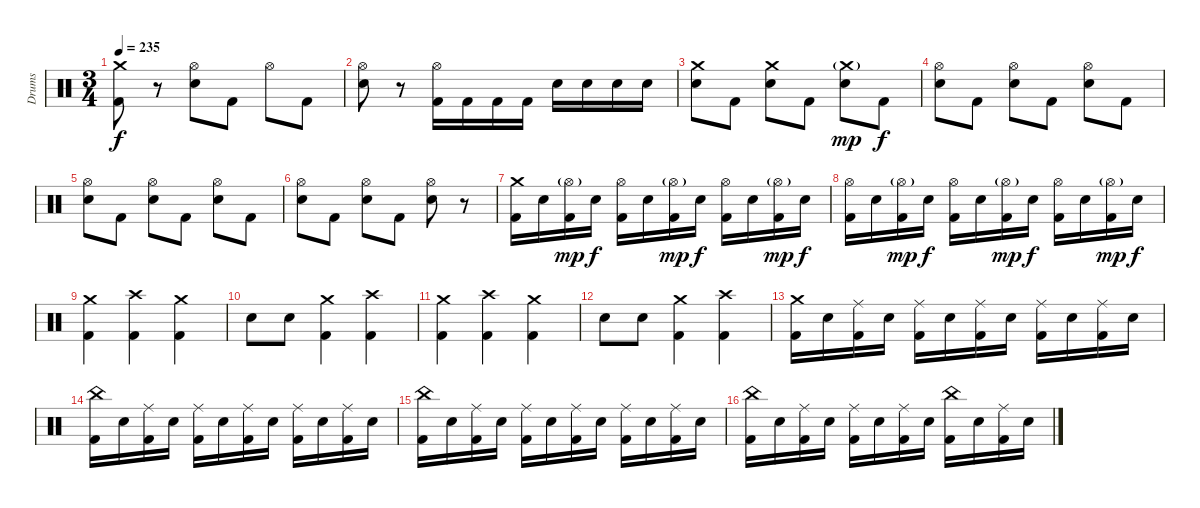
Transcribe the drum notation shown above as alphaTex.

\track ("Drums" "Drums") {instrument percussion}
\staff {score}
\articulation defaults
\ts (3 4)
\tempo 235
\clef neutral
\ks c
("Crash medium (hit)" "Kick (hit) 2").8{dy f} r.8 ("Hi-Hat (open)" "Electric Snare (hit)").8 "Kick (hit) 2".8 "Hi-Hat (open)".8 "Kick (hit) 2".8 |
("Hi-Hat (open)" "Electric Snare (hit)").8 r.8 ("Hi-Hat (open)" "Kick (hit) 2").16 "Kick (hit) 2".16 "Kick (hit) 2".16 "Kick (hit) 2".16 "Electric Snare (hit)".16 "Electric Snare (hit)".16 "Electric Snare (hit)".16 "Electric Snare (hit)".16 |
("Crash medium (hit)" "Electric Snare (hit)").8 "Kick (hit) 2".8 ("Crash medium (hit)" "Electric Snare (hit)").8 "Kick (hit) 2".8 ("Crash medium (hit)"{g} "Electric Snare (hit)").8{dy mp} "Kick (hit) 2".8{dy f} |
("Hi-Hat (open)" "Electric Snare (hit)").8 "Kick (hit) 2".8 ("Hi-Hat (open)" "Electric Snare (hit)").8 "Kick (hit) 2".8 ("Hi-Hat (open)" "Electric Snare (hit)").8 "Kick (hit) 2".8 |
("Hi-Hat (open)" "Electric Snare (hit)").8 "Kick (hit) 2".8 ("Hi-Hat (open)" "Electric Snare (hit)").8 "Kick (hit) 2".8 ("Hi-Hat (open)" "Electric Snare (hit)").8 "Kick (hit) 2".8 |
("Hi-Hat (open)" "Electric Snare (hit)").8 "Kick (hit) 2".8 ("Hi-Hat (open)" "Electric Snare (hit)").8 "Kick (hit) 2".8 ("Hi-Hat (open)" "Electric Snare (hit)").8 r.8 |
("Crash medium (hit)" "Kick (hit) 2").16 "Electric Snare (hit)".16 ("Hi-Hat (open)"{g} "Kick (hit) 2").16{dy mp} "Electric Snare (hit)".16{dy f} ("Hi-Hat (open)" "Kick (hit) 2").16 "Electric Snare (hit)".16 ("Hi-Hat (open)"{g} "Kick (hit) 2").16{dy mp} "Electric Snare (hit)".16{dy f} ("Hi-Hat (open)" "Kick (hit) 2").16 "Electric Snare (hit)".16 ("Hi-Hat (open)"{g} "Kick (hit) 2").16{dy mp} "Electric Snare (hit)".16{dy f} |
("Hi-Hat (open)" "Kick (hit) 2").16 "Electric Snare (hit)".16 ("Hi-Hat (open)"{g} "Kick (hit) 2").16{dy mp} "Electric Snare (hit)".16{dy f} ("Hi-Hat (open)" "Kick (hit) 2").16 "Electric Snare (hit)".16 ("Hi-Hat (open)"{g} "Kick (hit) 2").16{dy mp} "Electric Snare (hit)".16{dy f} ("Hi-Hat (open)" "Kick (hit) 2").16 "Electric Snare (hit)".16 ("Hi-Hat (open)"{g} "Kick (hit) 2").16{dy mp} "Electric Snare (hit)".16{dy f} |
("Crash medium (hit)" "Kick (hit) 2").4 ("Crash high (hit)" "Kick (hit) 2").4 ("Crash medium (hit)" "Kick (hit) 2").4 |
"Electric Snare (hit)".8 "Electric Snare (hit)".8 ("Crash medium (hit)" "Kick (hit) 2").4 ("Crash high (hit)" "Kick (hit) 2").4 |
("Crash medium (hit)" "Kick (hit) 2").4 ("Crash high (hit)" "Kick (hit) 2").4 ("Crash medium (hit)" "Kick (hit) 2").4 |
"Electric Snare (hit)".8 "Electric Snare (hit)".8 ("Crash medium (hit)" "Kick (hit) 2").4 ("Crash high (hit)" "Kick (hit) 2").4 |
("Crash medium (hit)" "Kick (hit) 2").16 "Electric Snare (hit)".16 ("Ride (middle)" "Kick (hit) 2").16 "Electric Snare (hit)".16 ("Ride (middle)" "Kick (hit) 2").16 "Electric Snare (hit)".16 ("Ride (middle)" "Kick (hit) 2").16 "Electric Snare (hit)".16 ("Ride (middle)" "Kick (hit) 2").16 "Electric Snare (hit)".16 ("Ride (middle)" "Kick (hit) 2").16 "Electric Snare (hit)".16 |
("China (hit)" "Kick (hit) 2").16 "Electric Snare (hit)".16 ("Ride (middle)" "Kick (hit) 2").16 "Electric Snare (hit)".16 ("Ride (middle)" "Kick (hit) 2").16 "Electric Snare (hit)".16 ("Ride (middle)" "Kick (hit) 2").16 "Electric Snare (hit)".16 ("Ride (middle)" "Kick (hit) 2").16 "Electric Snare (hit)".16 ("Ride (middle)" "Kick (hit) 2").16 "Electric Snare (hit)".16 |
("China (hit)" "Kick (hit) 2").16 "Electric Snare (hit)".16 ("Ride (middle)" "Kick (hit) 2").16 "Electric Snare (hit)".16 ("Ride (middle)" "Kick (hit) 2").16 "Electric Snare (hit)".16 ("Ride (middle)" "Kick (hit) 2").16 "Electric Snare (hit)".16 ("Ride (middle)" "Kick (hit) 2").16 "Electric Snare (hit)".16 ("Ride (middle)" "Kick (hit) 2").16 "Electric Snare (hit)".16 |
("China (hit)" "Kick (hit) 2").16 "Electric Snare (hit)".16 ("Ride (middle)" "Kick (hit) 2").16 "Electric Snare (hit)".16 ("Ride (middle)" "Kick (hit) 2").16 "Electric Snare (hit)".16 ("Ride (middle)" "Kick (hit) 2").16 "Electric Snare (hit)".16 ("China (hit)" "Kick (hit) 2").16 "Electric Snare (hit)".16 ("Ride (middle)" "Kick (hit) 2").16 "Electric Snare (hit)".16
